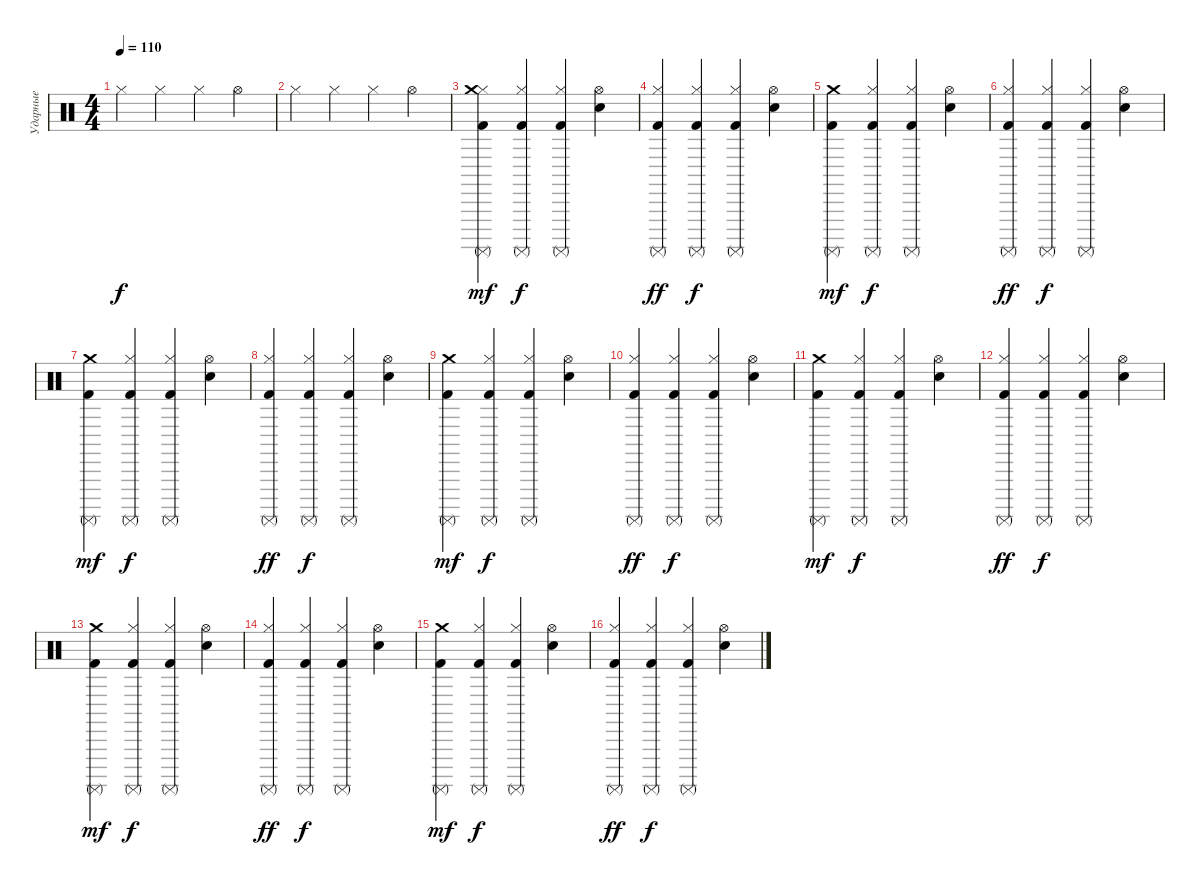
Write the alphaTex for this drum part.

\track ("Ударные" "Ударные") {instrument percussion}
\staff {score}
\articulation defaults
\ts (4 4)
\tempo 110
\clef neutral
\ks c "Hi-Hat (closed)".4{dy f} "Hi-Hat (closed)".4 "Hi-Hat (closed)".4 "Hi-Hat (open)".4
|
"Hi-Hat (closed)".4 "Hi-Hat (closed)".4 "Hi-Hat (closed)".4 "Hi-Hat (open)".4 |
("Hi-Hat (closed)" "Kick (hit) 2" "Surdo (mute)" "Crash medium (hit)").4{dy mf} ("Hi-Hat (closed)" "Kick (hit) 2" "Surdo (mute)").4{dy f} ("Hi-Hat (closed)" "Kick (hit) 2" "Surdo (mute)").4 ("Hi-Hat (open)" "Electric Snare (hit)").4 |
("Hi-Hat (closed)" "Kick (hit) 2" "Surdo (mute)").4{dy ff} ("Hi-Hat (closed)" "Kick (hit) 2" "Surdo (mute)").4{dy f} ("Hi-Hat (closed)" "Kick (hit) 2" "Surdo (mute)").4 ("Hi-Hat (open)" "Electric Snare (hit)").4 |
("Crash medium (hit)" "Kick (hit) 2" "Surdo (mute)").4{dy mf} ("Hi-Hat (closed)" "Kick (hit) 2" "Surdo (mute)").4{dy f} ("Hi-Hat (closed)" "Kick (hit) 2" "Surdo (mute)").4 ("Hi-Hat (open)" "Electric Snare (hit)").4 |
("Hi-Hat (closed)" "Kick (hit) 2" "Surdo (mute)").4{dy ff} ("Hi-Hat (closed)" "Kick (hit) 2" "Surdo (mute)").4{dy f} ("Hi-Hat (closed)" "Kick (hit) 2" "Surdo (mute)").4 ("Hi-Hat (open)" "Electric Snare (hit)").4 |
("Crash medium (hit)" "Kick (hit) 2" "Surdo (mute)").4{dy mf} ("Hi-Hat (closed)" "Kick (hit) 2" "Surdo (mute)").4{dy f} ("Hi-Hat (closed)" "Kick (hit) 2" "Surdo (mute)").4 ("Hi-Hat (open)" "Electric Snare (hit)").4 |
("Hi-Hat (closed)" "Kick (hit) 2" "Surdo (mute)").4{dy ff} ("Hi-Hat (closed)" "Kick (hit) 2" "Surdo (mute)").4{dy f} ("Hi-Hat (closed)" "Kick (hit) 2" "Surdo (mute)").4 ("Hi-Hat (open)" "Electric Snare (hit)").4 |
("Crash medium (hit)" "Kick (hit) 2" "Surdo (mute)").4{dy mf} ("Hi-Hat (closed)" "Kick (hit) 2" "Surdo (mute)").4{dy f} ("Hi-Hat (closed)" "Kick (hit) 2" "Surdo (mute)").4 ("Hi-Hat (open)" "Electric Snare (hit)").4 |
("Hi-Hat (closed)" "Kick (hit) 2" "Surdo (mute)").4{dy ff} ("Hi-Hat (closed)" "Kick (hit) 2" "Surdo (mute)").4{dy f} ("Hi-Hat (closed)" "Kick (hit) 2" "Surdo (mute)").4 ("Hi-Hat (open)" "Electric Snare (hit)").4 |
("Crash medium (hit)" "Kick (hit) 2" "Surdo (mute)").4{dy mf} ("Hi-Hat (closed)" "Kick (hit) 2" "Surdo (mute)").4{dy f} ("Hi-Hat (closed)" "Kick (hit) 2" "Surdo (mute)").4 ("Hi-Hat (open)" "Electric Snare (hit)").4 |
("Hi-Hat (closed)" "Kick (hit) 2" "Surdo (mute)").4{dy ff} ("Hi-Hat (closed)" "Kick (hit) 2" "Surdo (mute)").4{dy f} ("Hi-Hat (closed)" "Kick (hit) 2" "Surdo (mute)").4 ("Hi-Hat (open)" "Electric Snare (hit)").4 |
("Crash medium (hit)" "Kick (hit) 2" "Surdo (mute)").4{dy mf} ("Hi-Hat (closed)" "Kick (hit) 2" "Surdo (mute)").4{dy f} ("Hi-Hat (closed)" "Kick (hit) 2" "Surdo (mute)").4 ("Hi-Hat (open)" "Electric Snare (hit)").4 |
("Hi-Hat (closed)" "Kick (hit) 2" "Surdo (mute)").4{dy ff} ("Hi-Hat (closed)" "Kick (hit) 2" "Surdo (mute)").4{dy f} ("Hi-Hat (closed)" "Kick (hit) 2" "Surdo (mute)").4 ("Hi-Hat (open)" "Electric Snare (hit)").4 |
("Crash medium (hit)" "Kick (hit) 2" "Surdo (mute)").4{dy mf} ("Hi-Hat (closed)" "Kick (hit) 2" "Surdo (mute)").4{dy f} ("Hi-Hat (closed)" "Kick (hit) 2" "Surdo (mute)").4 ("Hi-Hat (open)" "Electric Snare (hit)").4 |
("Hi-Hat (closed)" "Kick (hit) 2" "Surdo (mute)").4{dy ff} ("Hi-Hat (closed)" "Kick (hit) 2" "Surdo (mute)").4{dy f} ("Hi-Hat (closed)" "Kick (hit) 2" "Surdo (mute)").4 ("Hi-Hat (open)" "Electric Snare (hit)").4
